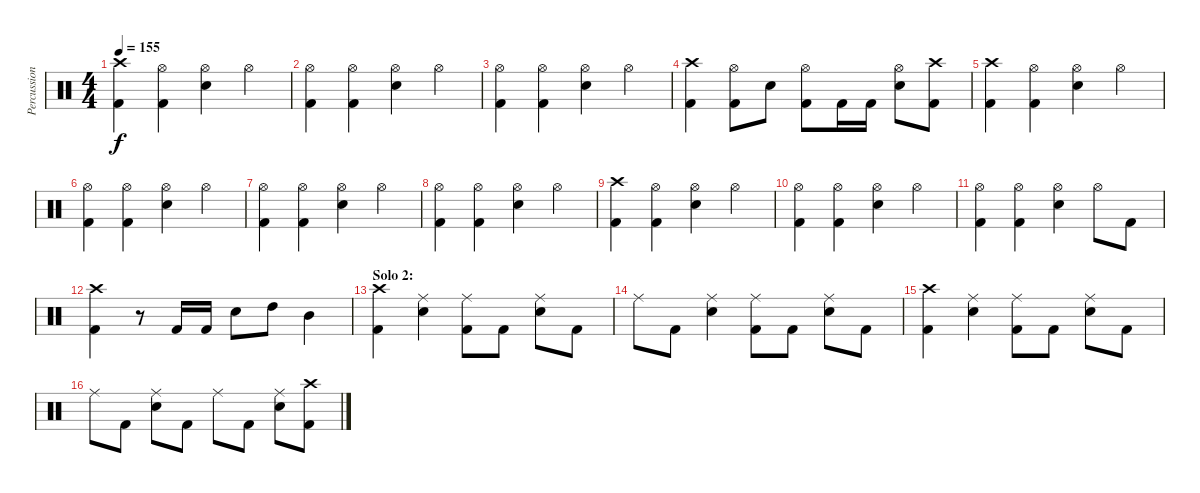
\track ("Percussion" "Percussion") {instrument percussion}
\staff {score}
\articulation defaults
\ts (4 4)
\tempo 155
\clef neutral
\ks c
("Crash high (hit)" "Kick (hit) 2").4{dy f} ("Hi-Hat (open)" "Kick (hit) 2").4 ("Hi-Hat (open)" "Electric Snare (hit)").4 "Hi-Hat (open)".4 |
("Hi-Hat (open)" "Kick (hit) 2").4 ("Hi-Hat (open)" "Kick (hit) 2").4 ("Hi-Hat (open)" "Electric Snare (hit)").4 "Hi-Hat (open)".4 |
("Hi-Hat (open)" "Kick (hit) 2").4 ("Hi-Hat (open)" "Kick (hit) 2").4 ("Hi-Hat (open)" "Electric Snare (hit)").4 "Hi-Hat (open)".4 |
("Crash high (hit)" "Kick (hit) 2").4 ("Hi-Hat (open)" "Kick (hit) 2").8 "Electric Snare (hit)".8 ("Hi-Hat (open)" "Kick (hit) 2").8 "Kick (hit) 2".16 "Kick (hit) 2".16 ("Hi-Hat (open)" "Electric Snare (hit)").8 ("Crash high (hit)" "Kick (hit) 2").8 |
("Crash high (hit)" "Kick (hit) 2").4 ("Hi-Hat (open)" "Kick (hit) 2").4 ("Hi-Hat (open)" "Electric Snare (hit)").4 "Hi-Hat (open)".4 |
("Hi-Hat (open)" "Kick (hit) 2").4 ("Hi-Hat (open)" "Kick (hit) 2").4 ("Hi-Hat (open)" "Electric Snare (hit)").4 "Hi-Hat (open)".4 |
("Hi-Hat (open)" "Kick (hit) 2").4 ("Hi-Hat (open)" "Kick (hit) 2").4 ("Hi-Hat (open)" "Electric Snare (hit)").4 "Hi-Hat (open)".4 |
("Hi-Hat (open)" "Kick (hit) 2").4 ("Hi-Hat (open)" "Kick (hit) 2").4 ("Hi-Hat (open)" "Electric Snare (hit)").4 "Hi-Hat (open)".4 |
("Crash high (hit)" "Kick (hit) 2").4 ("Hi-Hat (open)" "Kick (hit) 2").4 ("Hi-Hat (open)" "Electric Snare (hit)").4 "Hi-Hat (open)".4 |
("Hi-Hat (open)" "Kick (hit) 2").4 ("Hi-Hat (open)" "Kick (hit) 2").4 ("Hi-Hat (open)" "Electric Snare (hit)").4 "Hi-Hat (open)".4 |
("Hi-Hat (open)" "Kick (hit) 2").4 ("Hi-Hat (open)" "Kick (hit) 2").4 ("Hi-Hat (open)" "Electric Snare (hit)").4 "Hi-Hat (open)".8 "Kick (hit) 2".8 |
("Crash high (hit)" "Kick (hit) 2").4 r.8 "Kick (hit) 2".16 "Kick (hit) 2".16 "Electric Snare (hit)".8 "High Tom (hit)".8 "Mid Tom (hit)".4 |
\section ("" "Solo 2:")
("Crash high (hit)" "Kick (hit) 2").4 ("Ride (middle)" "Electric Snare (hit)").4 ("Ride (middle)" "Kick (hit) 2").8 "Kick (hit) 2".8 ("Ride (middle)" "Electric Snare (hit)").8 "Kick (hit) 2".8 |
"Ride (middle)".8 "Kick (hit) 2".8 ("Ride (middle)" "Electric Snare (hit)").4 ("Ride (middle)" "Kick (hit) 2").8 "Kick (hit) 2".8 ("Ride (middle)" "Electric Snare (hit)").8 "Kick (hit) 2".8 |
("Crash high (hit)" "Kick (hit) 2").4 ("Ride (middle)" "Electric Snare (hit)").4 ("Ride (middle)" "Kick (hit) 2").8 "Kick (hit) 2".8 ("Ride (middle)" "Electric Snare (hit)").8 "Kick (hit) 2".8 |
"Ride (middle)".8 "Kick (hit) 2".8 ("Ride (middle)" "Electric Snare (hit)").8 "Kick (hit) 2".8 "Ride (middle)".8 "Kick (hit) 2".8 ("Ride (middle)" "Electric Snare (hit)").8 ("Crash high (hit)" "Kick (hit) 2").8
